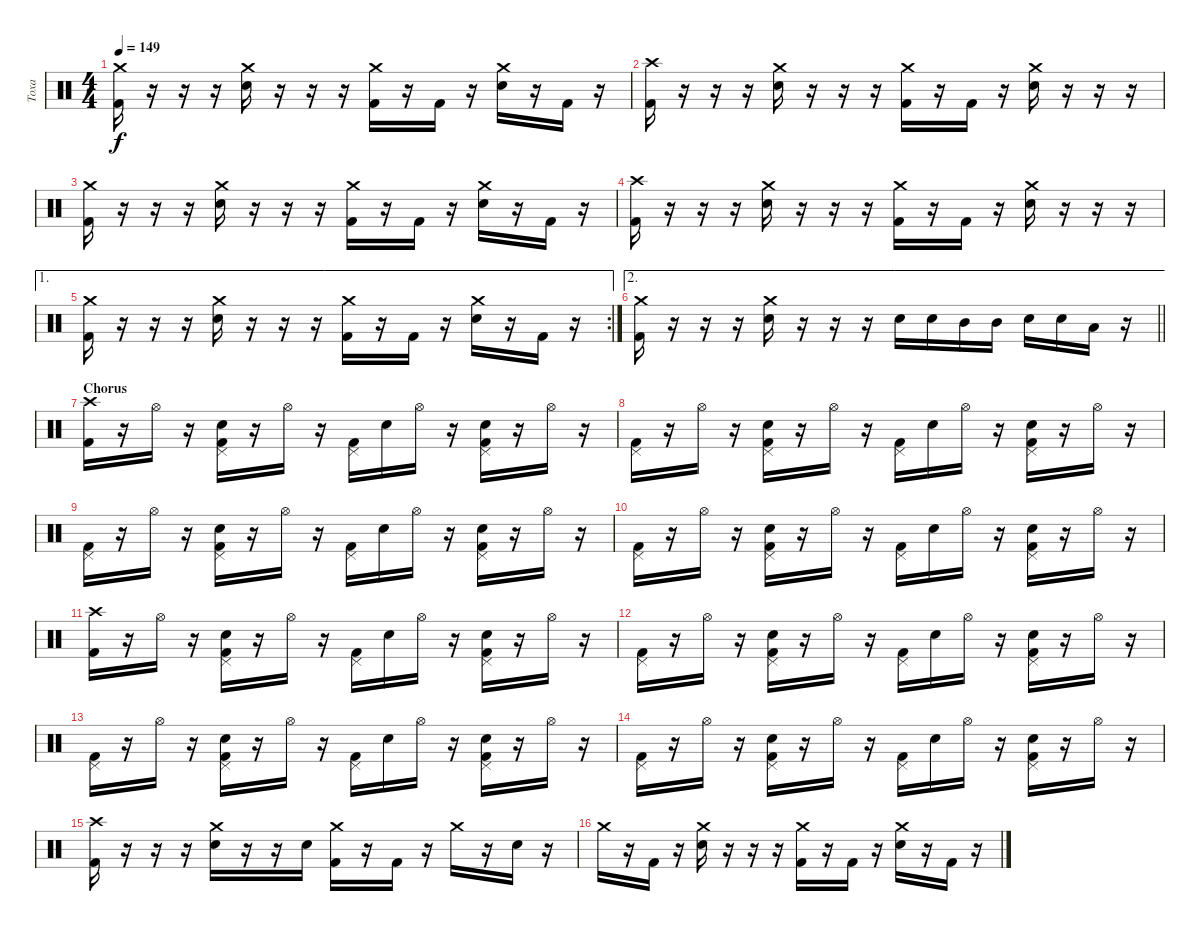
\track ("Toxa" "Toxa") {instrument percussion}
\staff {score}
\articulation defaults
\ts (4 4)
\tempo 149
\clef neutral
\ks c
("Kick (hit) 2" "Crash medium (hit)").16{dy f} r.16 r.16 r.16 ("Snare (hit) 2" "Crash medium (hit)").16 r.16 r.16 r.16 ("Kick (hit) 2" "Crash medium (hit)").16 r.16 "Kick (hit) 2".16 r.16 ("Snare (hit) 2" "Crash medium (hit)").16 r.16 "Kick (hit) 2".16 r.16 |
("Kick (hit) 2" "Crash high (hit)").16 r.16 r.16 r.16 ("Snare (hit) 2" "Crash medium (hit)").16 r.16 r.16 r.16 ("Kick (hit) 2" "Crash medium (hit)").16 r.16 "Kick (hit) 2".16 r.16 ("Snare (hit) 2" "Crash medium (hit)").16 r.16 r.16 r.16 |
("Kick (hit) 2" "Crash medium (hit)").16 r.16 r.16 r.16 ("Snare (hit) 2" "Crash medium (hit)").16 r.16 r.16 r.16 ("Kick (hit) 2" "Crash medium (hit)").16 r.16 "Kick (hit) 2".16 r.16 ("Snare (hit) 2" "Crash medium (hit)").16 r.16 "Kick (hit) 2".16 r.16 |
("Kick (hit) 2" "Crash high (hit)").16 r.16 r.16 r.16 ("Snare (hit) 2" "Crash medium (hit)").16 r.16 r.16 r.16 ("Kick (hit) 2" "Crash medium (hit)").16 r.16 "Kick (hit) 2".16 r.16 ("Snare (hit) 2" "Crash medium (hit)").16 r.16 r.16 r.16 |
\ae 1
\rc 2
("Kick (hit) 2" "Crash medium (hit)").16 r.16 r.16 r.16 ("Snare (hit) 2" "Crash medium (hit)").16 r.16 r.16 r.16 ("Kick (hit) 2" "Crash medium (hit)").16 r.16 "Kick (hit) 2".16 r.16 ("Snare (hit) 2" "Crash medium (hit)").16 r.16 "Kick (hit) 2".16 r.16 |
\ae 2
\barLineRight lightlight
("Kick (hit) 2" "Crash medium (hit)").16 r.16 r.16 r.16 ("Snare (hit) 2" "Crash medium (hit)").16 r.16 r.16 r.16 "Snare (hit) 2".16 "Snare (hit) 2".16 "Mid Tom (hit)".16 "Mid Tom (hit)".16 "Snare (hit) 2".16 "Snare (hit) 2".16 "Low Tom (hit)".16 r.16 |
\section ("" "Chorus")
("Kick (hit) 2" "Crash high (hit)").16 r.16 "Hi-Hat (open)".16 r.16 ("Snare (hit) 2" "Pedal Hi-Hat (hit)" "Kick (hit) 2").16 r.16 "Hi-Hat (open)".16 r.16 ("Kick (hit) 2" "Pedal Hi-Hat (hit)").16 "Snare (hit) 2".16 "Hi-Hat (open)".16 r.16 ("Snare (hit) 2" "Kick (hit) 2" "Pedal Hi-Hat (hit)").16 r.16 "Hi-Hat (open)".16 r.16 |
("Kick (hit) 2" "Pedal Hi-Hat (hit)").16 r.16 "Hi-Hat (open)".16 r.16 ("Snare (hit) 2" "Pedal Hi-Hat (hit)" "Kick (hit) 2").16 r.16 "Hi-Hat (open)".16 r.16 ("Kick (hit) 2" "Pedal Hi-Hat (hit)").16 "Snare (hit) 2".16 "Hi-Hat (open)".16 r.16 ("Snare (hit) 2" "Kick (hit) 2" "Pedal Hi-Hat (hit)").16 r.16 "Hi-Hat (open)".16 r.16 |
("Kick (hit) 2" "Pedal Hi-Hat (hit)").16 r.16 "Hi-Hat (open)".16 r.16 ("Snare (hit) 2" "Pedal Hi-Hat (hit)" "Kick (hit) 2").16 r.16 "Hi-Hat (open)".16 r.16 ("Kick (hit) 2" "Pedal Hi-Hat (hit)").16 "Snare (hit) 2".16 "Hi-Hat (open)".16 r.16 ("Snare (hit) 2" "Kick (hit) 2" "Pedal Hi-Hat (hit)").16 r.16 "Hi-Hat (open)".16 r.16 |
("Kick (hit) 2" "Pedal Hi-Hat (hit)").16 r.16 "Hi-Hat (open)".16 r.16 ("Snare (hit) 2" "Pedal Hi-Hat (hit)" "Kick (hit) 2").16 r.16 "Hi-Hat (open)".16 r.16 ("Kick (hit) 2" "Pedal Hi-Hat (hit)").16 "Snare (hit) 2".16 "Hi-Hat (open)".16 r.16 ("Snare (hit) 2" "Kick (hit) 2" "Pedal Hi-Hat (hit)").16 r.16 "Hi-Hat (open)".16 r.16 |
("Kick (hit) 2" "Crash high (hit)").16 r.16 "Hi-Hat (open)".16 r.16 ("Snare (hit) 2" "Pedal Hi-Hat (hit)" "Kick (hit) 2").16 r.16 "Hi-Hat (open)".16 r.16 ("Kick (hit) 2" "Pedal Hi-Hat (hit)").16 "Snare (hit) 2".16 "Hi-Hat (open)".16 r.16 ("Snare (hit) 2" "Kick (hit) 2" "Pedal Hi-Hat (hit)").16 r.16 "Hi-Hat (open)".16 r.16 |
("Kick (hit) 2" "Pedal Hi-Hat (hit)").16 r.16 "Hi-Hat (open)".16 r.16 ("Snare (hit) 2" "Pedal Hi-Hat (hit)" "Kick (hit) 2").16 r.16 "Hi-Hat (open)".16 r.16 ("Kick (hit) 2" "Pedal Hi-Hat (hit)").16 "Snare (hit) 2".16 "Hi-Hat (open)".16 r.16 ("Snare (hit) 2" "Kick (hit) 2" "Pedal Hi-Hat (hit)").16 r.16 "Hi-Hat (open)".16 r.16 |
("Kick (hit) 2" "Pedal Hi-Hat (hit)").16 r.16 "Hi-Hat (open)".16 r.16 ("Snare (hit) 2" "Pedal Hi-Hat (hit)" "Kick (hit) 2").16 r.16 "Hi-Hat (open)".16 r.16 ("Kick (hit) 2" "Pedal Hi-Hat (hit)").16 "Snare (hit) 2".16 "Hi-Hat (open)".16 r.16 ("Snare (hit) 2" "Kick (hit) 2" "Pedal Hi-Hat (hit)").16 r.16 "Hi-Hat (open)".16 r.16 |
("Kick (hit) 2" "Pedal Hi-Hat (hit)").16 r.16 "Hi-Hat (open)".16 r.16 ("Snare (hit) 2" "Pedal Hi-Hat (hit)" "Kick (hit) 2").16 r.16 "Hi-Hat (open)".16 r.16 ("Kick (hit) 2" "Pedal Hi-Hat (hit)").16 "Snare (hit) 2".16 "Hi-Hat (open)".16 r.16 ("Snare (hit) 2" "Kick (hit) 2" "Pedal Hi-Hat (hit)").16 r.16 "Hi-Hat (open)".16 r.16 |
("Kick (hit) 2" "Crash high (hit)").16 r.16 r.16 r.16 ("Snare (hit) 2" "Crash medium (hit)").16 r.16 r.16 "Snare (hit) 2".16 ("Kick (hit) 2" "Crash medium (hit)").16 r.16 "Kick (hit) 2".16 r.16 "Crash medium (hit)".16 r.16 "Snare (hit) 2".16 r.16 |
"Crash medium (hit)".16 r.16 "Kick (hit) 2".16 r.16 ("Snare (hit) 2" "Crash medium (hit)").16 r.16 r.16 r.16 ("Kick (hit) 2" "Crash medium (hit)").16 r.16 "Kick (hit) 2".16 r.16 ("Snare (hit) 2" "Crash medium (hit)").16 r.16 "Kick (hit) 2".16 r.16
